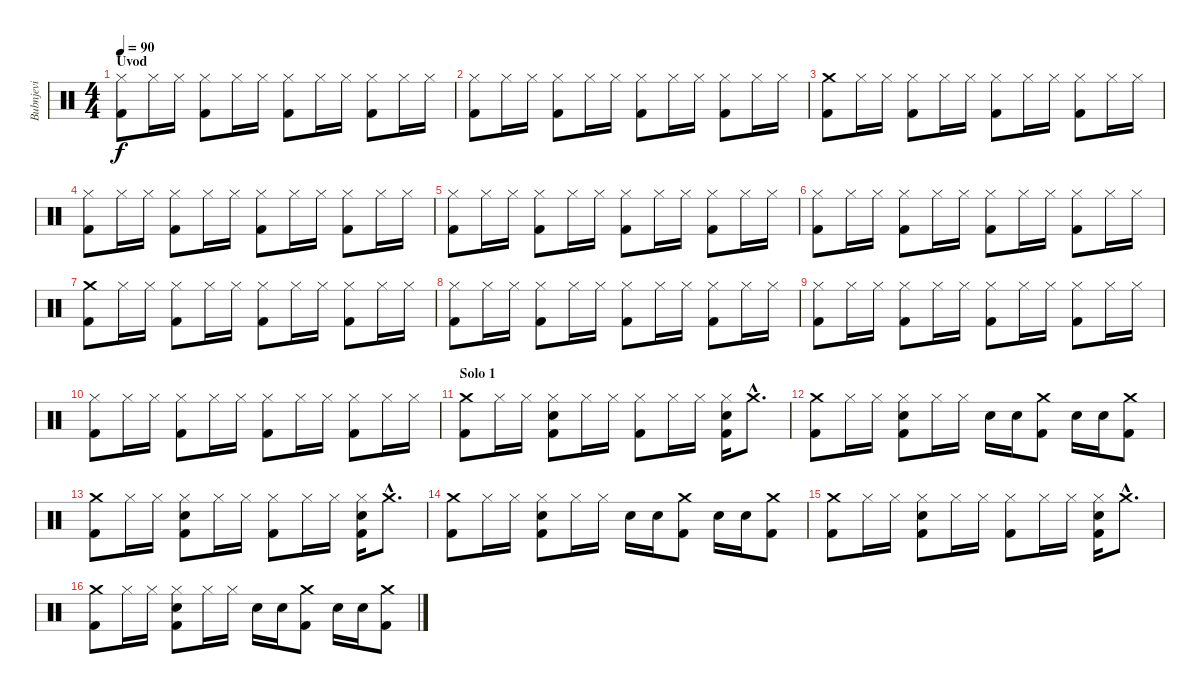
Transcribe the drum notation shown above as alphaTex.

\track ("Bubnjevi" "Bubnjevi") {instrument percussion}
\staff {score}
\articulation defaults
\ts (4 4)
\section ("" "Uvod")
\tempo 90
\clef neutral
\ks c
("Hi-Hat (closed)" "Kick (hit) 2").8{dy f} "Hi-Hat (closed)".16 "Hi-Hat (closed)".16 ("Hi-Hat (closed)" "Kick (hit) 2").8 "Hi-Hat (closed)".16 "Hi-Hat (closed)".16 ("Hi-Hat (closed)" "Kick (hit) 2").8 "Hi-Hat (closed)".16 "Hi-Hat (closed)".16 ("Hi-Hat (closed)" "Kick (hit) 2").8 "Hi-Hat (closed)".16 "Hi-Hat (closed)".16 |
("Hi-Hat (closed)" "Kick (hit) 2").8 "Hi-Hat (closed)".16 "Hi-Hat (closed)".16 ("Hi-Hat (closed)" "Kick (hit) 2").8 "Hi-Hat (closed)".16 "Hi-Hat (closed)".16 ("Hi-Hat (closed)" "Kick (hit) 2").8 "Hi-Hat (closed)".16 "Hi-Hat (closed)".16 ("Hi-Hat (closed)" "Kick (hit) 2").8 "Hi-Hat (closed)".16 "Hi-Hat (closed)".16 |
("Crash medium (hit)" "Kick (hit) 2").8 "Hi-Hat (closed)".16 "Hi-Hat (closed)".16 ("Hi-Hat (closed)" "Kick (hit) 2").8 "Hi-Hat (closed)".16 "Hi-Hat (closed)".16 ("Hi-Hat (closed)" "Kick (hit) 2").8 "Hi-Hat (closed)".16 "Hi-Hat (closed)".16 ("Hi-Hat (closed)" "Kick (hit) 2").8 "Hi-Hat (closed)".16 "Hi-Hat (closed)".16 |
("Hi-Hat (closed)" "Kick (hit) 2").8 "Hi-Hat (closed)".16 "Hi-Hat (closed)".16 ("Hi-Hat (closed)" "Kick (hit) 2").8 "Hi-Hat (closed)".16 "Hi-Hat (closed)".16 ("Hi-Hat (closed)" "Kick (hit) 2").8 "Hi-Hat (closed)".16 "Hi-Hat (closed)".16 ("Hi-Hat (closed)" "Kick (hit) 2").8 "Hi-Hat (closed)".16 "Hi-Hat (closed)".16 |
("Hi-Hat (closed)" "Kick (hit) 2").8 "Hi-Hat (closed)".16 "Hi-Hat (closed)".16 ("Hi-Hat (closed)" "Kick (hit) 2").8 "Hi-Hat (closed)".16 "Hi-Hat (closed)".16 ("Hi-Hat (closed)" "Kick (hit) 2").8 "Hi-Hat (closed)".16 "Hi-Hat (closed)".16 ("Hi-Hat (closed)" "Kick (hit) 2").8 "Hi-Hat (closed)".16 "Hi-Hat (closed)".16 |
("Hi-Hat (closed)" "Kick (hit) 2").8 "Hi-Hat (closed)".16 "Hi-Hat (closed)".16 ("Hi-Hat (closed)" "Kick (hit) 2").8 "Hi-Hat (closed)".16 "Hi-Hat (closed)".16 ("Hi-Hat (closed)" "Kick (hit) 2").8 "Hi-Hat (closed)".16 "Hi-Hat (closed)".16 ("Hi-Hat (closed)" "Kick (hit) 2").8 "Hi-Hat (closed)".16 "Hi-Hat (closed)".16 |
("Crash medium (hit)" "Kick (hit) 2").8 "Hi-Hat (closed)".16 "Hi-Hat (closed)".16 ("Hi-Hat (closed)" "Kick (hit) 2").8 "Hi-Hat (closed)".16 "Hi-Hat (closed)".16 ("Hi-Hat (closed)" "Kick (hit) 2").8 "Hi-Hat (closed)".16 "Hi-Hat (closed)".16 ("Hi-Hat (closed)" "Kick (hit) 2").8 "Hi-Hat (closed)".16 "Hi-Hat (closed)".16 |
("Hi-Hat (closed)" "Kick (hit) 2").8 "Hi-Hat (closed)".16 "Hi-Hat (closed)".16 ("Hi-Hat (closed)" "Kick (hit) 2").8 "Hi-Hat (closed)".16 "Hi-Hat (closed)".16 ("Hi-Hat (closed)" "Kick (hit) 2").8 "Hi-Hat (closed)".16 "Hi-Hat (closed)".16 ("Hi-Hat (closed)" "Kick (hit) 2").8 "Hi-Hat (closed)".16 "Hi-Hat (closed)".16 |
("Hi-Hat (closed)" "Kick (hit) 2").8 "Hi-Hat (closed)".16 "Hi-Hat (closed)".16 ("Hi-Hat (closed)" "Kick (hit) 2").8 "Hi-Hat (closed)".16 "Hi-Hat (closed)".16 ("Hi-Hat (closed)" "Kick (hit) 2").8 "Hi-Hat (closed)".16 "Hi-Hat (closed)".16 ("Hi-Hat (closed)" "Kick (hit) 2").8 "Hi-Hat (closed)".16 "Hi-Hat (closed)".16 |
("Hi-Hat (closed)" "Kick (hit) 2").8 "Hi-Hat (closed)".16 "Hi-Hat (closed)".16 ("Hi-Hat (closed)" "Kick (hit) 2").8 "Hi-Hat (closed)".16 "Hi-Hat (closed)".16 ("Hi-Hat (closed)" "Kick (hit) 2").8 "Hi-Hat (closed)".16 "Hi-Hat (closed)".16 ("Hi-Hat (closed)" "Kick (hit) 2").8 "Hi-Hat (closed)".16 "Hi-Hat (closed)".16 |
\section ("" "Solo 1")
("Crash medium (hit)" "Kick (hit) 2").8 "Hi-Hat (closed)".16 "Hi-Hat (closed)".16 ("Snare (hit) 2" "Hi-Hat (closed)" "Kick (hit) 2").8 "Hi-Hat (closed)".16 "Hi-Hat (closed)".16 ("Hi-Hat (closed)" "Kick (hit) 2").8 "Hi-Hat (closed)".16 "Hi-Hat (closed)".16 ("Snare (hit) 2" "Hi-Hat (closed)" "Kick (hit) 2").16 "Crash medium (hit)"{hac}.8{d} |
("Crash medium (hit)" "Kick (hit) 2").8 "Hi-Hat (closed)".16 "Hi-Hat (closed)".16 ("Snare (hit) 2" "Hi-Hat (closed)" "Kick (hit) 2").8 "Hi-Hat (closed)".16 "Hi-Hat (closed)".16 "Snare (hit) 2".16 "Snare (hit) 2".16 ("Crash medium (hit)" "Kick (hit) 2").8 "Snare (hit) 2".16 "Snare (hit) 2".16 ("Crash medium (hit)" "Kick (hit) 2").8 |
("Crash medium (hit)" "Kick (hit) 2").8 "Hi-Hat (closed)".16 "Hi-Hat (closed)".16 ("Snare (hit) 2" "Hi-Hat (closed)" "Kick (hit) 2").8 "Hi-Hat (closed)".16 "Hi-Hat (closed)".16 ("Hi-Hat (closed)" "Kick (hit) 2").8 "Hi-Hat (closed)".16 "Hi-Hat (closed)".16 ("Snare (hit) 2" "Hi-Hat (closed)" "Kick (hit) 2").16 "Crash medium (hit)"{hac}.8{d} |
("Crash medium (hit)" "Kick (hit) 2").8 "Hi-Hat (closed)".16 "Hi-Hat (closed)".16 ("Snare (hit) 2" "Hi-Hat (closed)" "Kick (hit) 2").8 "Hi-Hat (closed)".16 "Hi-Hat (closed)".16 "Snare (hit) 2".16 "Snare (hit) 2".16 ("Crash medium (hit)" "Kick (hit) 2").8 "Snare (hit) 2".16 "Snare (hit) 2".16 ("Crash medium (hit)" "Kick (hit) 2").8 |
("Crash medium (hit)" "Kick (hit) 2").8 "Hi-Hat (closed)".16 "Hi-Hat (closed)".16 ("Snare (hit) 2" "Hi-Hat (closed)" "Kick (hit) 2").8 "Hi-Hat (closed)".16 "Hi-Hat (closed)".16 ("Hi-Hat (closed)" "Kick (hit) 2").8 "Hi-Hat (closed)".16 "Hi-Hat (closed)".16 ("Snare (hit) 2" "Hi-Hat (closed)" "Kick (hit) 2").16 "Crash medium (hit)"{hac}.8{d} |
("Crash medium (hit)" "Kick (hit) 2").8 "Hi-Hat (closed)".16 "Hi-Hat (closed)".16 ("Snare (hit) 2" "Hi-Hat (closed)" "Kick (hit) 2").8 "Hi-Hat (closed)".16 "Hi-Hat (closed)".16 "Snare (hit) 2".16 "Snare (hit) 2".16 ("Crash medium (hit)" "Kick (hit) 2").8 "Snare (hit) 2".16 "Snare (hit) 2".16 ("Crash medium (hit)" "Kick (hit) 2").8
